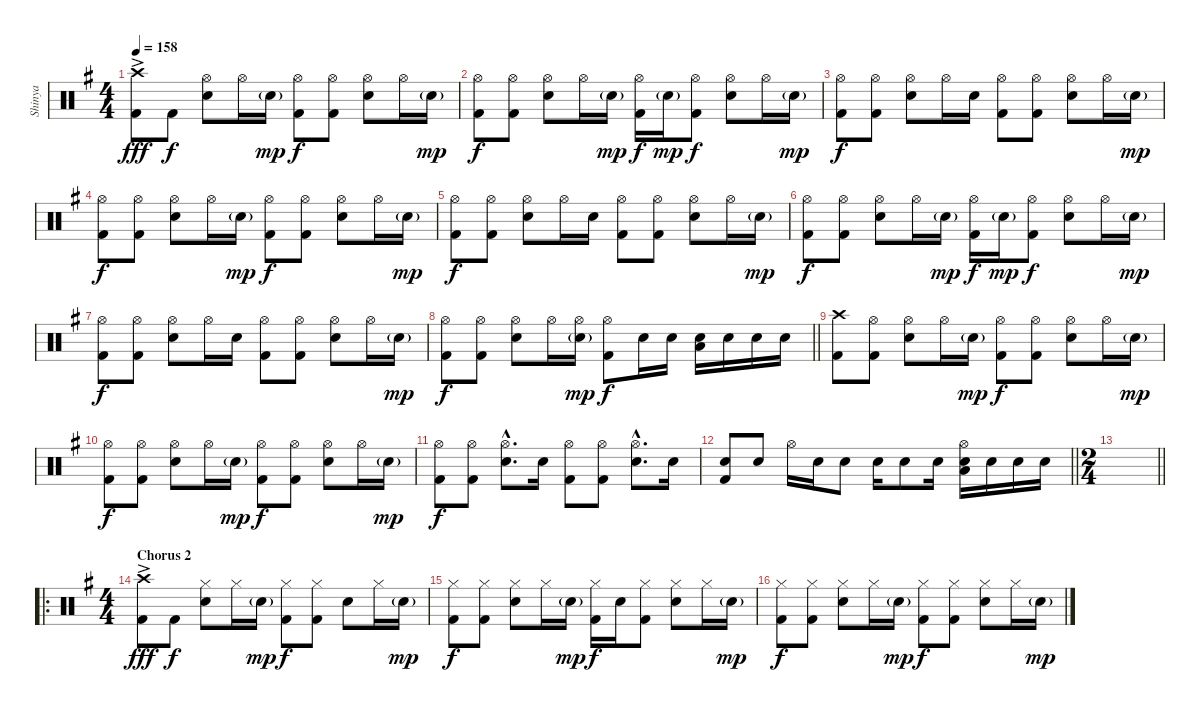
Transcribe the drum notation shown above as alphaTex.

\track ("Shinya" "Shinya") {instrument percussion}
\staff {score}
\articulation defaults
\ts (4 4)
\tempo 158
\clef neutral
\ks g
("Crash high (hit)"{ac} "Kick (hit) 2").8{dy fff} "Kick (hit) 2".8{dy f} ("Hi-Hat (open)" "Snare (hit) 2").8 "Hi-Hat (open)".16 "Snare (hit) 2"{g}.16{dy mp} ("Hi-Hat (open)" "Kick (hit) 2").8{dy f} ("Hi-Hat (open)" "Kick (hit) 2").8 ("Hi-Hat (open)" "Snare (hit) 2").8 "Hi-Hat (open)".16 "Snare (hit) 2"{g}.16{dy mp} |
("Hi-Hat (open)" "Kick (hit) 2").8{dy f} ("Hi-Hat (open)" "Kick (hit) 2").8 ("Hi-Hat (open)" "Snare (hit) 2").8 "Hi-Hat (open)".16 "Snare (hit) 2"{g}.16{dy mp} ("Hi-Hat (open)" "Kick (hit) 2").16{dy f} "Snare (hit) 2"{g}.16{dy mp} ("Hi-Hat (open)" "Kick (hit) 2").8{dy f} ("Hi-Hat (open)" "Snare (hit) 2").8 "Hi-Hat (open)".16 "Snare (hit) 2"{g}.16{dy mp} |
("Hi-Hat (open)" "Kick (hit) 2").8{dy f} ("Hi-Hat (open)" "Kick (hit) 2").8 ("Hi-Hat (open)" "Snare (hit) 2").8 "Hi-Hat (open)".16 "Snare (hit) 2".16 ("Hi-Hat (open)" "Kick (hit) 2").8 ("Hi-Hat (open)" "Kick (hit) 2").8 ("Hi-Hat (open)" "Snare (hit) 2").8 "Hi-Hat (open)".16 "Snare (hit) 2"{g}.16{dy mp} |
("Hi-Hat (open)" "Kick (hit) 2").8{dy f} ("Hi-Hat (open)" "Kick (hit) 2").8 ("Hi-Hat (open)" "Snare (hit) 2").8 "Hi-Hat (open)".16 "Snare (hit) 2"{g}.16{dy mp} ("Hi-Hat (open)" "Kick (hit) 2").8{dy f} ("Hi-Hat (open)" "Kick (hit) 2").8 ("Hi-Hat (open)" "Snare (hit) 2").8 "Hi-Hat (open)".16 "Snare (hit) 2"{g}.16{dy mp} |
("Hi-Hat (open)" "Kick (hit) 2").8{dy f} ("Hi-Hat (open)" "Kick (hit) 2").8 ("Hi-Hat (open)" "Snare (hit) 2").8 "Hi-Hat (open)".16 "Snare (hit) 2".16 ("Hi-Hat (open)" "Kick (hit) 2").8 ("Hi-Hat (open)" "Kick (hit) 2").8 ("Hi-Hat (open)" "Snare (hit) 2").8 "Hi-Hat (open)".16 "Snare (hit) 2"{g}.16{dy mp} |
("Hi-Hat (open)" "Kick (hit) 2").8{dy f} ("Hi-Hat (open)" "Kick (hit) 2").8 ("Hi-Hat (open)" "Snare (hit) 2").8 "Hi-Hat (open)".16 "Snare (hit) 2"{g}.16{dy mp} ("Hi-Hat (open)" "Kick (hit) 2").16{dy f} "Snare (hit) 2"{g}.16{dy mp} ("Hi-Hat (open)" "Kick (hit) 2").8{dy f} ("Hi-Hat (open)" "Snare (hit) 2").8 "Hi-Hat (open)".16 "Snare (hit) 2"{g}.16{dy mp} |
("Hi-Hat (open)" "Kick (hit) 2").8{dy f} ("Hi-Hat (open)" "Kick (hit) 2").8 ("Hi-Hat (open)" "Snare (hit) 2").8 "Hi-Hat (open)".16 "Snare (hit) 2".16 ("Hi-Hat (open)" "Kick (hit) 2").8 ("Hi-Hat (open)" "Kick (hit) 2").8 ("Hi-Hat (open)" "Snare (hit) 2").8 "Hi-Hat (open)".16 "Snare (hit) 2"{g}.16{dy mp} |
\barLineRight lightlight
("Hi-Hat (open)" "Kick (hit) 2").8{dy f} ("Hi-Hat (open)" "Kick (hit) 2").8 ("Hi-Hat (open)" "Snare (hit) 2").8 "Hi-Hat (open)".16 ("Hi-Hat (open)" "Snare (hit) 2"{g}).16{dy mp} ("Hi-Hat (open)" "Kick (hit) 2").8{dy f} "Snare (hit) 2".16 "Snare (hit) 2".16 ("Low Floor Tom (hit)" "Snare (hit) 2").16 "Snare (hit) 2".16 "Snare (hit) 2".16 "Snare (hit) 2".16 |
("Crash high (hit)" "Kick (hit) 2").8 ("Hi-Hat (open)" "Kick (hit) 2").8 ("Hi-Hat (open)" "Snare (hit) 2").8 "Hi-Hat (open)".16 "Snare (hit) 2"{g}.16{dy mp} ("Hi-Hat (open)" "Kick (hit) 2").8{dy f} ("Hi-Hat (open)" "Kick (hit) 2").8 ("Hi-Hat (open)" "Snare (hit) 2").8 "Hi-Hat (open)".16 "Snare (hit) 2"{g}.16{dy mp} |
("Hi-Hat (open)" "Kick (hit) 2").8{dy f} ("Hi-Hat (open)" "Kick (hit) 2").8 ("Hi-Hat (open)" "Snare (hit) 2").8 "Hi-Hat (open)".16 "Snare (hit) 2"{g}.16{dy mp} ("Hi-Hat (open)" "Kick (hit) 2").8{dy f} ("Hi-Hat (open)" "Kick (hit) 2").8 ("Hi-Hat (open)" "Snare (hit) 2").8 "Hi-Hat (open)".16 "Snare (hit) 2"{g}.16{dy mp} |
("Hi-Hat (open)" "Kick (hit) 2").8{dy f} ("Hi-Hat (open)" "Kick (hit) 2").8 ("Hi-Hat (open)"{hac} "Snare (hit) 2"{hac}).8{d} "Snare (hit) 2".16 ("Hi-Hat (open)" "Kick (hit) 2").8 ("Hi-Hat (open)" "Kick (hit) 2").8 ("Hi-Hat (open)"{hac} "Snare (hit) 2"{hac}).8{d} "Snare (hit) 2".16 |
\barLineRight lightlight
("Snare (hit) 2" "Kick (hit) 2").8 "Snare (hit) 2".8 "Hi-Hat (open)".16 "Snare (hit) 2".16 "Snare (hit) 2".8 "Snare (hit) 2".16 "Snare (hit) 2".8 "Snare (hit) 2".16 ("Hi-Hat (open)" "Snare (hit) 2" "Low Floor Tom (hit)").16 "Snare (hit) 2".16 "Snare (hit) 2".16 "Snare (hit) 2".16 |
\ts (2 4)
\barLineRight lightlight
|
\ro
\ts (4 4)
\section ("" "Chorus 2")
("Crash high (hit)"{ac} "Kick (hit) 2").8{dy fff} "Kick (hit) 2".8{dy f} ("Hi-Hat (closed)" "Snare (hit) 2").8 "Hi-Hat (closed)".16 "Snare (hit) 2"{g}.16{dy mp} ("Hi-Hat (closed)" "Kick (hit) 2").8{dy f} ("Hi-Hat (closed)" "Kick (hit) 2").8 "Snare (hit) 2".8 "Hi-Hat (closed)".16 "Snare (hit) 2"{g}.16{dy mp} |
("Hi-Hat (closed)" "Kick (hit) 2").8{dy f} ("Hi-Hat (closed)" "Kick (hit) 2").8 ("Hi-Hat (closed)" "Snare (hit) 2").8 "Hi-Hat (closed)".16 "Snare (hit) 2"{g}.16{dy mp} ("Hi-Hat (closed)" "Kick (hit) 2").16{dy f} "Snare (hit) 2".16 ("Hi-Hat (closed)" "Kick (hit) 2").8 ("Hi-Hat (closed)" "Snare (hit) 2").8 "Hi-Hat (closed)".16 "Snare (hit) 2"{g}.16{dy mp} |
("Hi-Hat (closed)" "Kick (hit) 2").8{dy f} ("Hi-Hat (closed)" "Kick (hit) 2").8 ("Hi-Hat (closed)" "Snare (hit) 2").8 "Hi-Hat (closed)".16 "Snare (hit) 2"{g}.16{dy mp} ("Hi-Hat (closed)" "Kick (hit) 2").8{dy f} ("Hi-Hat (closed)" "Kick (hit) 2").8 ("Hi-Hat (closed)" "Snare (hit) 2").8 "Hi-Hat (closed)".16 "Snare (hit) 2"{g}.16{dy mp}
